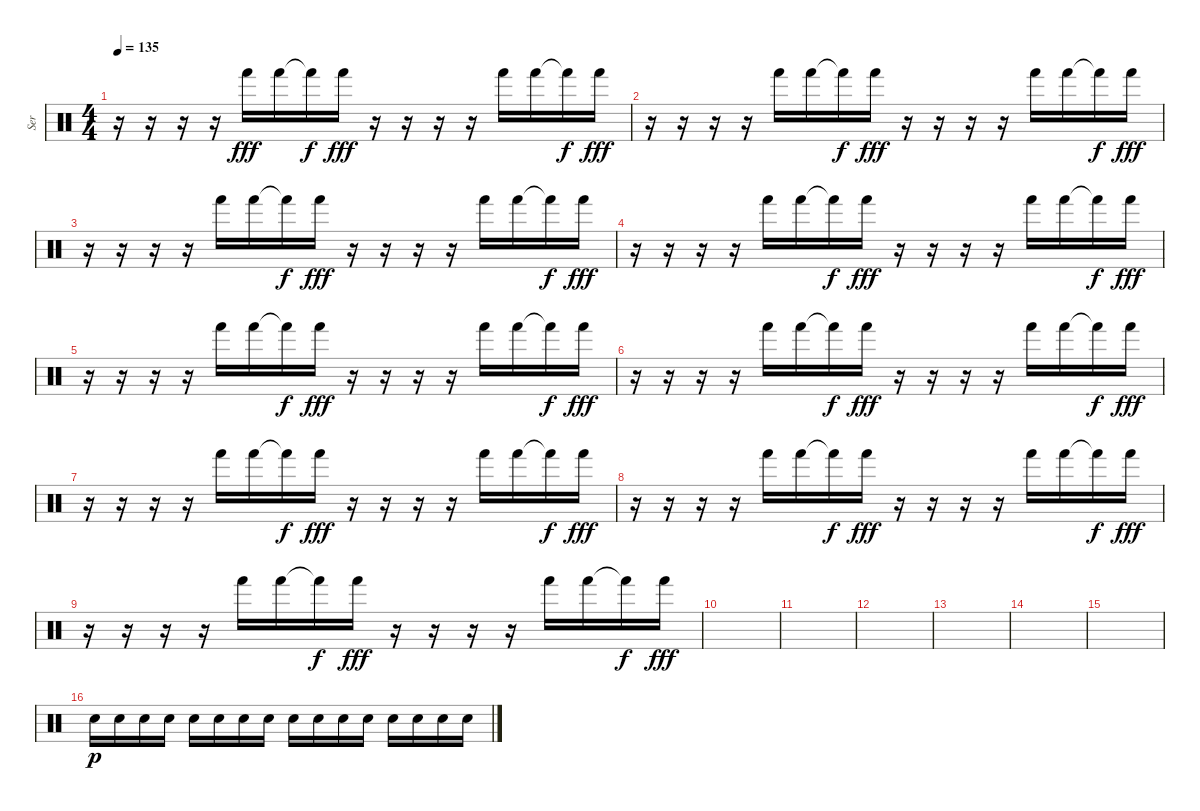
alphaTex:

\track ("Ser" "Ser") {instrument percussion}
\staff {score}
\articulation defaults
\ts (4 4)
\tempo 135
\clef neutral
\ks c
r.16{dy fff} r.16 r.16 r.16 "Hand (hit)".16 "Hand (hit)".16 "Hand (hit)"{t}.16{dy f} "Hand (hit)".16{dy fff} r.16 r.16 r.16 r.16 "Hand (hit)".16 "Hand (hit)".16 "Hand (hit)"{t}.16{dy f} "Hand (hit)".16{dy fff} |
r.16 r.16 r.16 r.16 "Hand (hit)".16 "Hand (hit)".16 "Hand (hit)"{t}.16{dy f} "Hand (hit)".16{dy fff} r.16 r.16 r.16 r.16 "Hand (hit)".16 "Hand (hit)".16 "Hand (hit)"{t}.16{dy f} "Hand (hit)".16{dy fff} |
r.16 r.16 r.16 r.16 "Hand (hit)".16 "Hand (hit)".16 "Hand (hit)"{t}.16{dy f} "Hand (hit)".16{dy fff} r.16 r.16 r.16 r.16 "Hand (hit)".16 "Hand (hit)".16 "Hand (hit)"{t}.16{dy f} "Hand (hit)".16{dy fff} |
r.16 r.16 r.16 r.16 "Hand (hit)".16 "Hand (hit)".16 "Hand (hit)"{t}.16{dy f} "Hand (hit)".16{dy fff} r.16 r.16 r.16 r.16 "Hand (hit)".16 "Hand (hit)".16 "Hand (hit)"{t}.16{dy f} "Hand (hit)".16{dy fff} |
r.16 r.16 r.16 r.16 "Hand (hit)".16 "Hand (hit)".16 "Hand (hit)"{t}.16{dy f} "Hand (hit)".16{dy fff} r.16 r.16 r.16 r.16 "Hand (hit)".16 "Hand (hit)".16 "Hand (hit)"{t}.16{dy f} "Hand (hit)".16{dy fff} |
r.16 r.16 r.16 r.16 "Hand (hit)".16 "Hand (hit)".16 "Hand (hit)"{t}.16{dy f} "Hand (hit)".16{dy fff} r.16 r.16 r.16 r.16 "Hand (hit)".16 "Hand (hit)".16 "Hand (hit)"{t}.16{dy f} "Hand (hit)".16{dy fff} |
r.16 r.16 r.16 r.16 "Hand (hit)".16 "Hand (hit)".16 "Hand (hit)"{t}.16{dy f} "Hand (hit)".16{dy fff} r.16 r.16 r.16 r.16 "Hand (hit)".16 "Hand (hit)".16 "Hand (hit)"{t}.16{dy f} "Hand (hit)".16{dy fff} |
r.16 r.16 r.16 r.16 "Hand (hit)".16 "Hand (hit)".16 "Hand (hit)"{t}.16{dy f} "Hand (hit)".16{dy fff} r.16 r.16 r.16 r.16 "Hand (hit)".16 "Hand (hit)".16 "Hand (hit)"{t}.16{dy f} "Hand (hit)".16{dy fff} |
r.16 r.16 r.16 r.16 "Hand (hit)".16 "Hand (hit)".16 "Hand (hit)"{t}.16{dy f} "Hand (hit)".16{dy fff} r.16 r.16 r.16 r.16 "Hand (hit)".16 "Hand (hit)".16 "Hand (hit)"{t}.16{dy f} "Hand (hit)".16{dy fff} |
|
|
|
|
|
|
"Electric Snare (hit)".16{dy p} "Electric Snare (hit)".16 "Electric Snare (hit)".16 "Electric Snare (hit)".16 "Electric Snare (hit)".16 "Electric Snare (hit)".16 "Electric Snare (hit)".16 "Electric Snare (hit)".16 "Electric Snare (hit)".16 "Electric Snare (hit)".16 "Electric Snare (hit)".16 "Electric Snare (hit)".16 "Electric Snare (hit)".16 "Electric Snare (hit)".16 "Electric Snare (hit)".16 "Electric Snare (hit)".16
